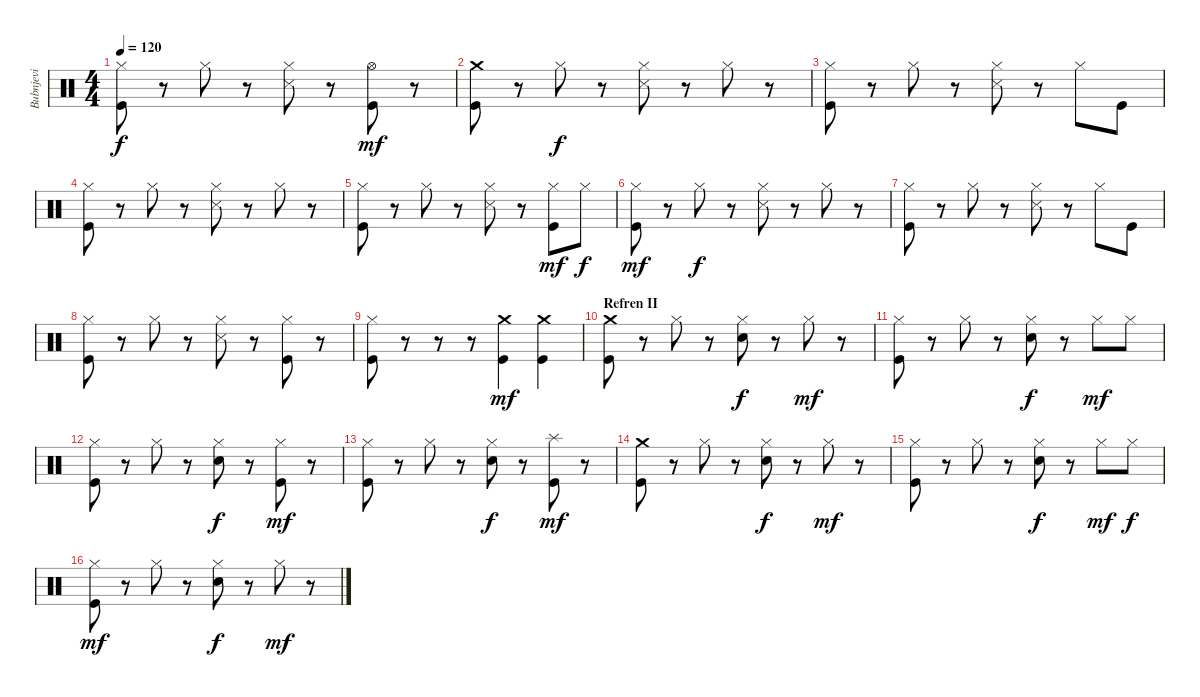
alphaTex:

\track ("Bubnjevi" "Bubnjevi") {instrument percussion}
\staff {score}
\articulation defaults
\ts (4 4)
\tempo 120
\clef neutral
\ks c
("Hi-Hat (closed)" "Kick (hit)").8{dy f} r.8 "Hi-Hat (closed)".8 r.8 ("Hi-Hat (closed)" "Snare (side stick) 3").8 r.8 ("Hi-Hat (open)" "Kick (hit)").8{dy mf} r.8 |
("Crash medium (hit)" "Kick (hit)").8 r.8 "Hi-Hat (closed)".8{dy f} r.8 ("Hi-Hat (closed)" "Snare (side stick) 3").8 r.8 "Hi-Hat (closed)".8 r.8 |
("Hi-Hat (closed)" "Kick (hit)").8 r.8 "Hi-Hat (closed)".8 r.8 ("Hi-Hat (closed)" "Snare (side stick) 3").8 r.8 "Hi-Hat (closed)".8 "Kick (hit)".8 |
("Hi-Hat (closed)" "Kick (hit)").8 r.8 "Hi-Hat (closed)".8 r.8 ("Hi-Hat (closed)" "Snare (side stick) 3").8 r.8 "Hi-Hat (closed)".8 r.8 |
("Hi-Hat (closed)" "Kick (hit)").8 r.8 "Hi-Hat (closed)".8 r.8 ("Hi-Hat (closed)" "Snare (side stick) 3").8 r.8 ("Hi-Hat (closed)" "Kick (hit)").8{dy mf} "Hi-Hat (closed)".8{dy f} |
("Hi-Hat (closed)" "Kick (hit)").8{dy mf} r.8 "Hi-Hat (closed)".8{dy f} r.8 ("Hi-Hat (closed)" "Snare (side stick) 3").8 r.8 "Hi-Hat (closed)".8 r.8 |
("Hi-Hat (closed)" "Kick (hit)").8 r.8 "Hi-Hat (closed)".8 r.8 ("Hi-Hat (closed)" "Snare (side stick) 3").8 r.8 "Hi-Hat (closed)".8 "Kick (hit)".8 |
("Hi-Hat (closed)" "Kick (hit)").8 r.8 "Hi-Hat (closed)".8 r.8 ("Hi-Hat (closed)" "Snare (side stick) 3").8 r.8 ("Hi-Hat (closed)" "Kick (hit)").8 r.8 |
("Hi-Hat (closed)" "Kick (hit)").8 r.8 r.8 r.8 ("Crash medium (hit)" "Kick (hit)").4{dy mf} ("Crash medium (hit)" "Kick (hit)").4 |
\section ("" "Refren II")
("Crash medium (hit)" "Kick (hit)").8 r.8 "Hi-Hat (closed)".8 r.8 ("Hi-Hat (closed)" "Snare (hit) 2").8{dy f} r.8 "Hi-Hat (closed)".8{dy mf} r.8 |
("Hi-Hat (closed)" "Kick (hit)").8 r.8 "Hi-Hat (closed)".8 r.8 ("Hi-Hat (closed)" "Snare (hit) 2").8{dy f} r.8 "Hi-Hat (closed)".8{dy mf} "Hi-Hat (closed)".8 |
("Hi-Hat (closed)" "Kick (hit)").8 r.8 "Hi-Hat (closed)".8 r.8 ("Hi-Hat (closed)" "Snare (hit) 2").8{dy f} r.8 ("Hi-Hat (closed)" "Kick (hit)").8{dy mf} r.8 |
("Hi-Hat (closed)" "Kick (hit)").8 r.8 "Hi-Hat (closed)".8 r.8 ("Hi-Hat (closed)" "Snare (hit) 2").8{dy f} r.8 ("Splash (hit)" "Kick (hit)").8{dy mf} r.8 |
("Crash medium (hit)" "Kick (hit)").8 r.8 "Hi-Hat (closed)".8 r.8 ("Hi-Hat (closed)" "Snare (hit) 2").8{dy f} r.8 "Hi-Hat (closed)".8{dy mf} r.8 |
("Hi-Hat (closed)" "Kick (hit)").8 r.8 "Hi-Hat (closed)".8 r.8 ("Hi-Hat (closed)" "Snare (hit) 2").8{dy f} r.8 "Hi-Hat (closed)".8{dy mf} "Hi-Hat (closed)".8{dy f} |
("Hi-Hat (closed)" "Kick (hit)").8{dy mf} r.8 "Hi-Hat (closed)".8 r.8 ("Hi-Hat (closed)" "Snare (hit) 2").8{dy f} r.8 "Hi-Hat (closed)".8{dy mf} r.8
